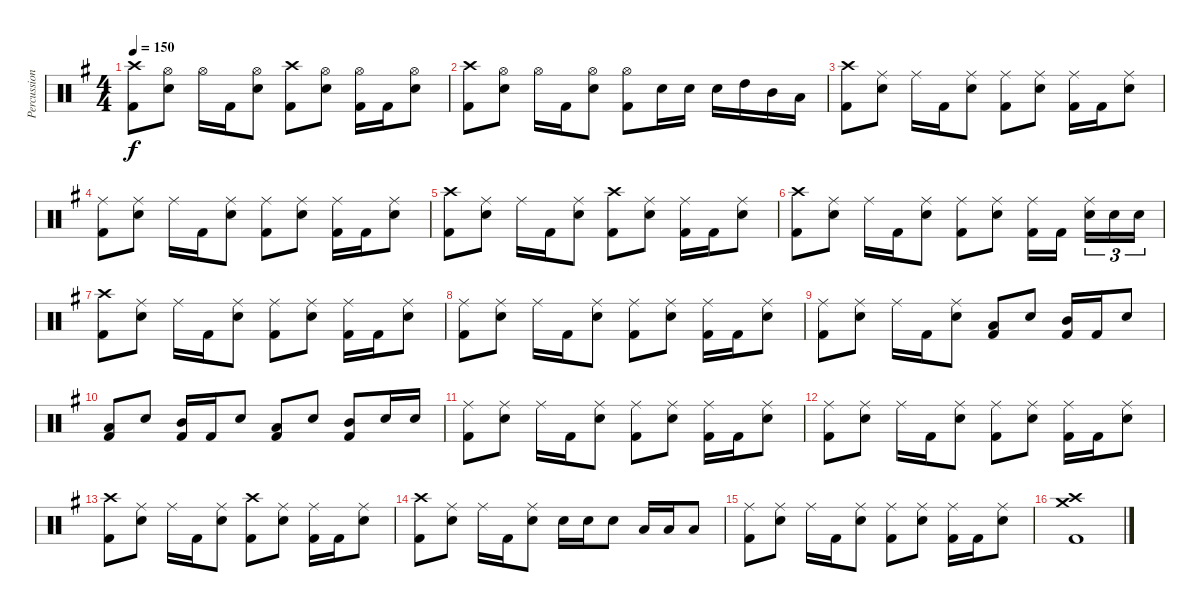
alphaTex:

\track ("Percussion" "Percussion") {instrument percussion}
\staff {score}
\articulation defaults
\ts (4 4)
\tempo 150
\clef neutral
\ks g
("Crash high (hit)" "Kick (hit) 2").8{dy f} ("Hi-Hat (open)" "Electric Snare (hit)").8 "Hi-Hat (open)".16 "Kick (hit) 2".16 ("Hi-Hat (open)" "Electric Snare (hit)").8 ("Crash high (hit)" "Kick (hit) 2").8 ("Hi-Hat (open)" "Electric Snare (hit)").8 ("Hi-Hat (open)" "Kick (hit) 2").16 "Kick (hit) 2".16 ("Hi-Hat (open)" "Electric Snare (hit)").8 |
("Crash high (hit)" "Kick (hit) 2").8 ("Hi-Hat (open)" "Electric Snare (hit)").8 "Hi-Hat (open)".16 "Kick (hit) 2".16 ("Hi-Hat (open)" "Electric Snare (hit)").8 ("Hi-Hat (open)" "Kick (hit) 2").8 "Electric Snare (hit)".16 "Electric Snare (hit)".16 "Electric Snare (hit)".16 "High Tom (hit)".16 "Mid Tom (hit)".16 "Low Tom (hit)".16 |
("Crash high (hit)" "Kick (hit) 2").8 ("Ride (middle)" "Electric Snare (hit)").8 "Ride (middle)".16 "Kick (hit) 2".16 ("Ride (middle)" "Electric Snare (hit)").8 ("Ride (middle)" "Kick (hit) 2").8 ("Ride (middle)" "Electric Snare (hit)").8 ("Ride (middle)" "Kick (hit) 2").16 "Kick (hit) 2".16 ("Ride (middle)" "Electric Snare (hit)").8 |
("Ride (middle)" "Kick (hit) 2").8 ("Ride (middle)" "Electric Snare (hit)").8 "Ride (middle)".16 "Kick (hit) 2".16 ("Ride (middle)" "Electric Snare (hit)").8 ("Ride (middle)" "Kick (hit) 2").8 ("Ride (middle)" "Electric Snare (hit)").8 ("Ride (middle)" "Kick (hit) 2").16 "Kick (hit) 2".16 ("Ride (middle)" "Electric Snare (hit)").8 |
("Crash high (hit)" "Kick (hit) 2").8 ("Ride (middle)" "Electric Snare (hit)").8 "Ride (middle)".16 "Kick (hit) 2".16 ("Ride (middle)" "Electric Snare (hit)").8 ("Crash high (hit)" "Kick (hit) 2").8 ("Ride (middle)" "Electric Snare (hit)").8 ("Ride (middle)" "Kick (hit) 2").16 "Kick (hit) 2".16 ("Ride (middle)" "Electric Snare (hit)").8 |
("Crash high (hit)" "Kick (hit) 2").8 ("Ride (middle)" "Electric Snare (hit)").8 "Ride (middle)".16 "Kick (hit) 2".16 ("Ride (middle)" "Electric Snare (hit)").8 ("Ride (middle)" "Kick (hit) 2").8 ("Ride (middle)" "Electric Snare (hit)").8 ("Ride (middle)" "Kick (hit) 2").16 "Kick (hit) 2".16{beam splitsecondary} ("Ride (middle)" "Electric Snare (hit)").16{tu (3 2)} "Electric Snare (hit)".16{tu (3 2)} "Electric Snare (hit)".16{tu (3 2)} |
("Crash high (hit)" "Kick (hit) 2").8 ("Ride (middle)" "Electric Snare (hit)").8 "Ride (middle)".16 "Kick (hit) 2".16 ("Ride (middle)" "Electric Snare (hit)").8 ("Ride (middle)" "Kick (hit) 2").8 ("Ride (middle)" "Electric Snare (hit)").8 ("Ride (middle)" "Kick (hit) 2").16 "Kick (hit) 2".16 ("Ride (middle)" "Electric Snare (hit)").8 |
("Ride (middle)" "Kick (hit) 2").8 ("Ride (middle)" "Electric Snare (hit)").8 "Ride (middle)".16 "Kick (hit) 2".16 ("Ride (middle)" "Electric Snare (hit)").8 ("Ride (middle)" "Kick (hit) 2").8 ("Ride (middle)" "Electric Snare (hit)").8 ("Ride (middle)" "Kick (hit) 2").16 "Kick (hit) 2".16 ("Ride (middle)" "Electric Snare (hit)").8 |
("Ride (middle)" "Kick (hit) 2").8 ("Ride (middle)" "Electric Snare (hit)").8 "Ride (middle)".16 "Kick (hit) 2".16 ("Ride (middle)" "Electric Snare (hit)").8 ("Low Tom (hit)" "Kick (hit) 2").8 "Electric Snare (hit)".8 ("Mid Tom (hit)" "Kick (hit) 2").16 "Kick (hit) 2".16 "Electric Snare (hit)".8 |
("Low Tom (hit)" "Kick (hit) 2").8 "Electric Snare (hit)".8 ("Mid Tom (hit)" "Kick (hit) 2").16 "Kick (hit) 2".16 "Electric Snare (hit)".8 ("Low Tom (hit)" "Kick (hit) 2").8 "Electric Snare (hit)".8 ("Mid Tom (hit)" "Kick (hit) 2").8 "Electric Snare (hit)".16 "Electric Snare (hit)".16 |
("Ride (middle)" "Kick (hit) 2").8 ("Ride (middle)" "Electric Snare (hit)").8 "Ride (middle)".16 "Kick (hit) 2".16 ("Ride (middle)" "Electric Snare (hit)").8 ("Ride (middle)" "Kick (hit) 2").8 ("Ride (middle)" "Electric Snare (hit)").8 ("Ride (middle)" "Kick (hit) 2").16 "Kick (hit) 2".16 ("Ride (middle)" "Electric Snare (hit)").8 |
("Ride (middle)" "Kick (hit) 2").8 ("Ride (middle)" "Electric Snare (hit)").8 "Ride (middle)".16 "Kick (hit) 2".16 ("Ride (middle)" "Electric Snare (hit)").8 ("Ride (middle)" "Kick (hit) 2").8 ("Ride (middle)" "Electric Snare (hit)").8 ("Ride (middle)" "Kick (hit) 2").16 "Kick (hit) 2".16 ("Ride (middle)" "Electric Snare (hit)").8 |
("Crash high (hit)" "Kick (hit) 2").8 ("Ride (middle)" "Electric Snare (hit)").8 "Ride (middle)".16 "Kick (hit) 2".16 ("Ride (middle)" "Electric Snare (hit)").8 ("Crash high (hit)" "Kick (hit) 2").8 ("Ride (middle)" "Electric Snare (hit)").8 ("Ride (middle)" "Kick (hit) 2").16 "Kick (hit) 2".16 ("Ride (middle)" "Electric Snare (hit)").8 |
("Crash high (hit)" "Kick (hit) 2").8 ("Ride (middle)" "Electric Snare (hit)").8 "Ride (middle)".16 "Kick (hit) 2".16 ("Ride (middle)" "Electric Snare (hit)").8 "Electric Snare (hit)".16 "Electric Snare (hit)".16 "Electric Snare (hit)".8 "Low Tom (hit)".16 "Low Tom (hit)".16 "Low Tom (hit)".8 |
("Ride (middle)" "Kick (hit) 2").8 ("Ride (middle)" "Electric Snare (hit)").8 "Ride (middle)".16 "Kick (hit) 2".16 ("Ride (middle)" "Electric Snare (hit)").8 ("Ride (middle)" "Kick (hit) 2").8 ("Ride (middle)" "Electric Snare (hit)").8 ("Ride (middle)" "Kick (hit) 2").16 "Kick (hit) 2".16 ("Ride (middle)" "Electric Snare (hit)").8 |
("Crash high (hit)" "Crash medium (hit)" "Kick (hit) 2").1
